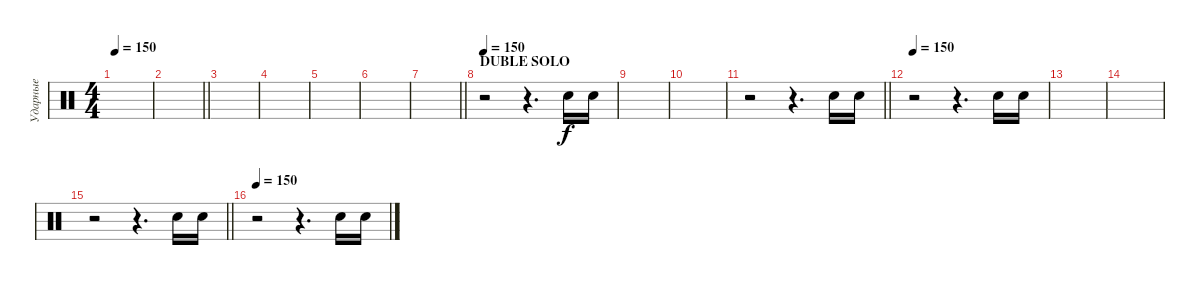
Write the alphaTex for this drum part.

\track ("Ударные" "Ударные") {instrument percussion}
\staff {score}
\articulation defaults
\ts (4 4)
\tempo 150
\clef neutral
\ks c
|
\barLineRight lightlight
|
|
|
|
|
\barLineRight lightlight
|
\section ("" "DUBLE SOLO")
\tempo 150
r.2 r.4{d} "Snare (hit) 2".16 "Snare (hit) 2".16 |
|
|
\barLineRight lightlight
r.2 r.4{d} "Snare (hit) 2".16 "Snare (hit) 2".16 |
\tempo 150
r.2 r.4{d} "Snare (hit) 2".16 "Snare (hit) 2".16 |
|
|
\barLineRight lightlight
r.2 r.4{d} "Snare (hit) 2".16 "Snare (hit) 2".16 |
\tempo 150
r.2 r.4{d} "Snare (hit) 2".16 "Snare (hit) 2".16
